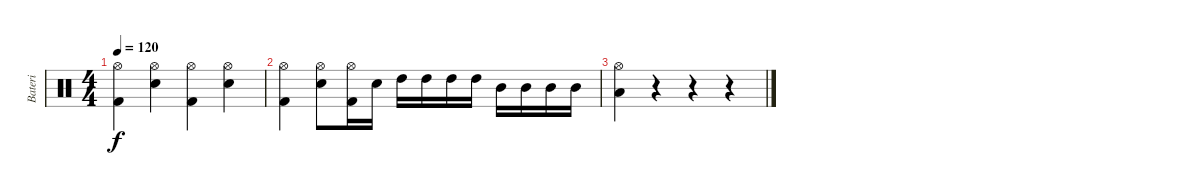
\track ("Bateri" "Bateri") {instrument percussion}
\staff {score}
\articulation defaults
\ts (4 4)
\tempo 120
\clef neutral
\ks c
("Kick (hit) 2" "Hi-Hat (open)").4{dy f} ("Electric Snare (hit)" "Hi-Hat (open)").4 ("Kick (hit) 2" "Hi-Hat (open)").4 ("Electric Snare (hit)" "Hi-Hat (open)").4 |
("Kick (hit) 2" "Hi-Hat (open)").4 ("Electric Snare (hit)" "Hi-Hat (open)").8 ("Kick (hit) 2" "Hi-Hat (open)").16 "Electric Snare (hit)".16 "High Tom (hit)".16 "High Tom (hit)".16 "High Tom (hit)".16 "High Tom (hit)".16 "Mid Tom (hit)".16 "Mid Tom (hit)".16 "Mid Tom (hit)".16 "Mid Tom (hit)".16 |
("Low Tom (hit)" "Hi-Hat (open)").4 r.4 r.4 r.4
